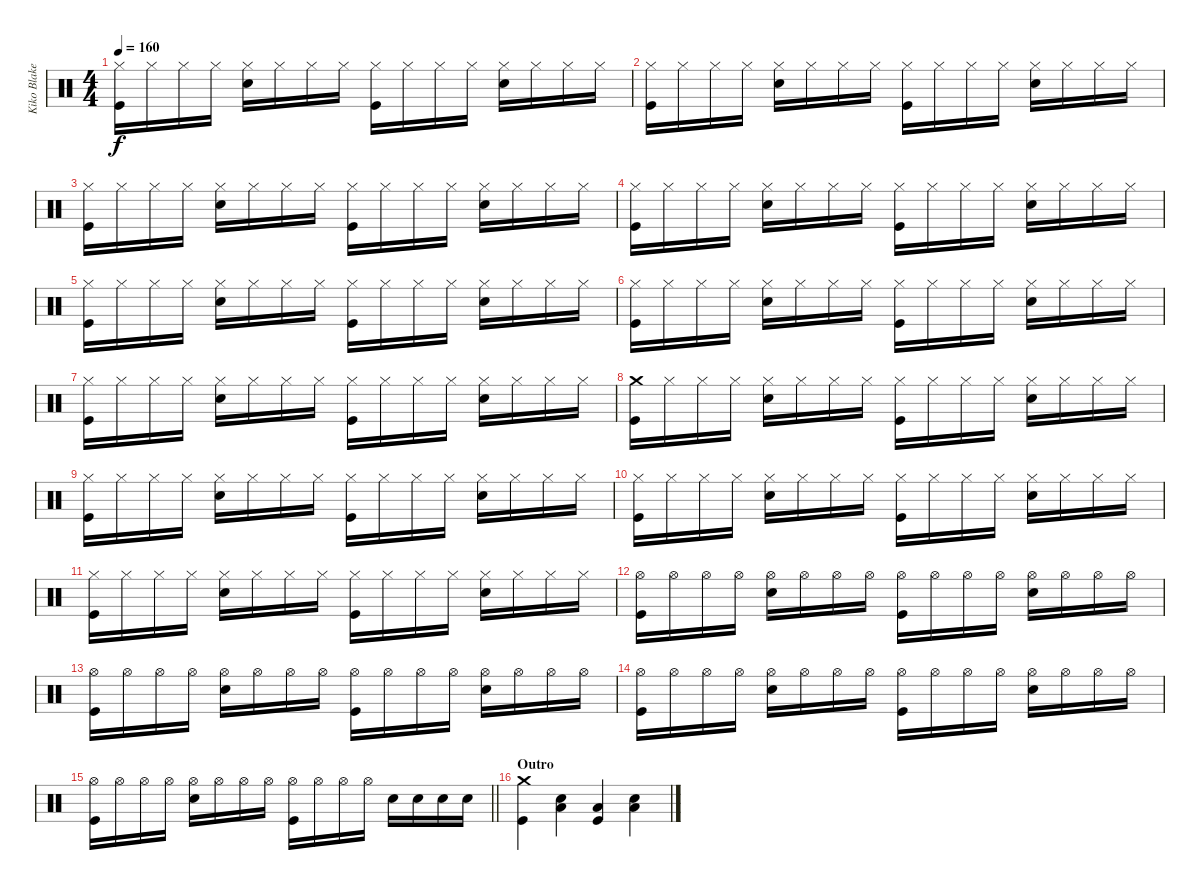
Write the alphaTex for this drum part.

\track ("Kiko Blake" "Kiko Blake") {instrument percussion}
\staff {score}
\articulation defaults
\ts (4 4)
\tempo 160
\clef neutral
\ks c
("Hi-Hat (closed)" "Kick (hit)").16{dy f} "Hi-Hat (closed)".16 "Hi-Hat (closed)".16 "Hi-Hat (closed)".16 ("Hi-Hat (closed)" "Snare (hit) 2").16 "Hi-Hat (closed)".16 "Hi-Hat (closed)".16 "Hi-Hat (closed)".16 ("Hi-Hat (closed)" "Kick (hit)").16 "Hi-Hat (closed)".16 "Hi-Hat (closed)".16 "Hi-Hat (closed)".16 ("Hi-Hat (closed)" "Snare (hit) 2").16 "Hi-Hat (closed)".16 "Hi-Hat (closed)".16 "Hi-Hat (closed)".16 |
("Hi-Hat (closed)" "Kick (hit)").16 "Hi-Hat (closed)".16 "Hi-Hat (closed)".16 "Hi-Hat (closed)".16 ("Hi-Hat (closed)" "Snare (hit) 2").16 "Hi-Hat (closed)".16 "Hi-Hat (closed)".16 "Hi-Hat (closed)".16 ("Hi-Hat (closed)" "Kick (hit)").16 "Hi-Hat (closed)".16 "Hi-Hat (closed)".16 "Hi-Hat (closed)".16 ("Hi-Hat (closed)" "Snare (hit) 2").16 "Hi-Hat (closed)".16 "Hi-Hat (closed)".16 "Hi-Hat (closed)".16 |
("Hi-Hat (closed)" "Kick (hit)").16 "Hi-Hat (closed)".16 "Hi-Hat (closed)".16 "Hi-Hat (closed)".16 ("Hi-Hat (closed)" "Snare (hit) 2").16 "Hi-Hat (closed)".16 "Hi-Hat (closed)".16 "Hi-Hat (closed)".16 ("Hi-Hat (closed)" "Kick (hit)").16 "Hi-Hat (closed)".16 "Hi-Hat (closed)".16 "Hi-Hat (closed)".16 ("Hi-Hat (closed)" "Snare (hit) 2").16 "Hi-Hat (closed)".16 "Hi-Hat (closed)".16 "Hi-Hat (closed)".16 |
("Hi-Hat (closed)" "Kick (hit)").16 "Hi-Hat (closed)".16 "Hi-Hat (closed)".16 "Hi-Hat (closed)".16 ("Hi-Hat (closed)" "Snare (hit) 2").16 "Hi-Hat (closed)".16 "Hi-Hat (closed)".16 "Hi-Hat (closed)".16 ("Hi-Hat (closed)" "Kick (hit)").16 "Hi-Hat (closed)".16 "Hi-Hat (closed)".16 "Hi-Hat (closed)".16 ("Hi-Hat (closed)" "Snare (hit) 2").16 "Hi-Hat (closed)".16 "Hi-Hat (closed)".16 "Hi-Hat (closed)".16 |
("Hi-Hat (closed)" "Kick (hit)").16 "Hi-Hat (closed)".16 "Hi-Hat (closed)".16 "Hi-Hat (closed)".16 ("Hi-Hat (closed)" "Snare (hit) 2").16 "Hi-Hat (closed)".16 "Hi-Hat (closed)".16 "Hi-Hat (closed)".16 ("Hi-Hat (closed)" "Kick (hit)").16 "Hi-Hat (closed)".16 "Hi-Hat (closed)".16 "Hi-Hat (closed)".16 ("Hi-Hat (closed)" "Snare (hit) 2").16 "Hi-Hat (closed)".16 "Hi-Hat (closed)".16 "Hi-Hat (closed)".16 |
("Hi-Hat (closed)" "Kick (hit)").16 "Hi-Hat (closed)".16 "Hi-Hat (closed)".16 "Hi-Hat (closed)".16 ("Hi-Hat (closed)" "Snare (hit) 2").16 "Hi-Hat (closed)".16 "Hi-Hat (closed)".16 "Hi-Hat (closed)".16 ("Hi-Hat (closed)" "Kick (hit)").16 "Hi-Hat (closed)".16 "Hi-Hat (closed)".16 "Hi-Hat (closed)".16 ("Hi-Hat (closed)" "Snare (hit) 2").16 "Hi-Hat (closed)".16 "Hi-Hat (closed)".16 "Hi-Hat (closed)".16 |
("Hi-Hat (closed)" "Kick (hit)").16 "Hi-Hat (closed)".16 "Hi-Hat (closed)".16 "Hi-Hat (closed)".16 ("Hi-Hat (closed)" "Snare (hit) 2").16 "Hi-Hat (closed)".16 "Hi-Hat (closed)".16 "Hi-Hat (closed)".16 ("Hi-Hat (closed)" "Kick (hit)").16 "Hi-Hat (closed)".16 "Hi-Hat (closed)".16 "Hi-Hat (closed)".16 ("Hi-Hat (closed)" "Snare (hit) 2").16 "Hi-Hat (closed)".16 "Hi-Hat (closed)".16 "Hi-Hat (closed)".16 |
("Crash medium (hit)" "Kick (hit)").16 "Hi-Hat (closed)".16 "Hi-Hat (closed)".16 "Hi-Hat (closed)".16 ("Hi-Hat (closed)" "Snare (hit) 2").16 "Hi-Hat (closed)".16 "Hi-Hat (closed)".16 "Hi-Hat (closed)".16 ("Hi-Hat (closed)" "Kick (hit)").16 "Hi-Hat (closed)".16 "Hi-Hat (closed)".16 "Hi-Hat (closed)".16 ("Hi-Hat (closed)" "Snare (hit) 2").16 "Hi-Hat (closed)".16 "Hi-Hat (closed)".16 "Hi-Hat (closed)".16 |
("Hi-Hat (closed)" "Kick (hit)").16 "Hi-Hat (closed)".16 "Hi-Hat (closed)".16 "Hi-Hat (closed)".16 ("Hi-Hat (closed)" "Snare (hit) 2").16 "Hi-Hat (closed)".16 "Hi-Hat (closed)".16 "Hi-Hat (closed)".16 ("Hi-Hat (closed)" "Kick (hit)").16 "Hi-Hat (closed)".16 "Hi-Hat (closed)".16 "Hi-Hat (closed)".16 ("Hi-Hat (closed)" "Snare (hit) 2").16 "Hi-Hat (closed)".16 "Hi-Hat (closed)".16 "Hi-Hat (closed)".16 |
("Hi-Hat (closed)" "Kick (hit)").16 "Hi-Hat (closed)".16 "Hi-Hat (closed)".16 "Hi-Hat (closed)".16 ("Hi-Hat (closed)" "Snare (hit) 2").16 "Hi-Hat (closed)".16 "Hi-Hat (closed)".16 "Hi-Hat (closed)".16 ("Hi-Hat (closed)" "Kick (hit)").16 "Hi-Hat (closed)".16 "Hi-Hat (closed)".16 "Hi-Hat (closed)".16 ("Hi-Hat (closed)" "Snare (hit) 2").16 "Hi-Hat (closed)".16 "Hi-Hat (closed)".16 "Hi-Hat (closed)".16 |
("Hi-Hat (closed)" "Kick (hit)").16 "Hi-Hat (closed)".16 "Hi-Hat (closed)".16 "Hi-Hat (closed)".16 ("Hi-Hat (closed)" "Snare (hit) 2").16 "Hi-Hat (closed)".16 "Hi-Hat (closed)".16 "Hi-Hat (closed)".16 ("Hi-Hat (closed)" "Kick (hit)").16 "Hi-Hat (closed)".16 "Hi-Hat (closed)".16 "Hi-Hat (closed)".16 ("Hi-Hat (closed)" "Snare (hit) 2").16 "Hi-Hat (closed)".16 "Hi-Hat (closed)".16 "Hi-Hat (closed)".16 |
("Hi-Hat (open)" "Kick (hit)").16 "Hi-Hat (open)".16 "Hi-Hat (open)".16 "Hi-Hat (open)".16 ("Hi-Hat (open)" "Snare (hit) 2").16 "Hi-Hat (open)".16 "Hi-Hat (open)".16 "Hi-Hat (open)".16 ("Hi-Hat (open)" "Kick (hit)").16 "Hi-Hat (open)".16 "Hi-Hat (open)".16 "Hi-Hat (open)".16 ("Hi-Hat (open)" "Snare (hit) 2").16 "Hi-Hat (open)".16 "Hi-Hat (open)".16 "Hi-Hat (open)".16 |
("Hi-Hat (open)" "Kick (hit)").16 "Hi-Hat (open)".16 "Hi-Hat (open)".16 "Hi-Hat (open)".16 ("Hi-Hat (open)" "Snare (hit) 2").16 "Hi-Hat (open)".16 "Hi-Hat (open)".16 "Hi-Hat (open)".16 ("Hi-Hat (open)" "Kick (hit)").16 "Hi-Hat (open)".16 "Hi-Hat (open)".16 "Hi-Hat (open)".16 ("Hi-Hat (open)" "Snare (hit) 2").16 "Hi-Hat (open)".16 "Hi-Hat (open)".16 "Hi-Hat (open)".16 |
("Hi-Hat (open)" "Kick (hit)").16 "Hi-Hat (open)".16 "Hi-Hat (open)".16 "Hi-Hat (open)".16 ("Hi-Hat (open)" "Snare (hit) 2").16 "Hi-Hat (open)".16 "Hi-Hat (open)".16 "Hi-Hat (open)".16 ("Hi-Hat (open)" "Kick (hit)").16 "Hi-Hat (open)".16 "Hi-Hat (open)".16 "Hi-Hat (open)".16 ("Hi-Hat (open)" "Snare (hit) 2").16 "Hi-Hat (open)".16 "Hi-Hat (open)".16 "Hi-Hat (open)".16 |
\barLineRight lightlight
("Hi-Hat (open)" "Kick (hit)").16 "Hi-Hat (open)".16 "Hi-Hat (open)".16 "Hi-Hat (open)".16 ("Hi-Hat (open)" "Snare (hit) 2").16 "Hi-Hat (open)".16 "Hi-Hat (open)".16 "Hi-Hat (open)".16 ("Hi-Hat (open)" "Kick (hit)").16 "Hi-Hat (open)".16 "Hi-Hat (open)".16 "Hi-Hat (open)".16 "Snare (hit) 2".16 "Snare (hit) 2".16 "Snare (hit) 2".16 "Snare (hit) 2".16 |
\section ("" "Outro")
("Crash medium (hit)" "Kick (hit)").4 ("Low Floor Tom (hit)" "Snare (hit) 2").4 ("Low Floor Tom (hit)" "Kick (hit)").4 ("Low Floor Tom (hit)" "Snare (hit) 2").4
